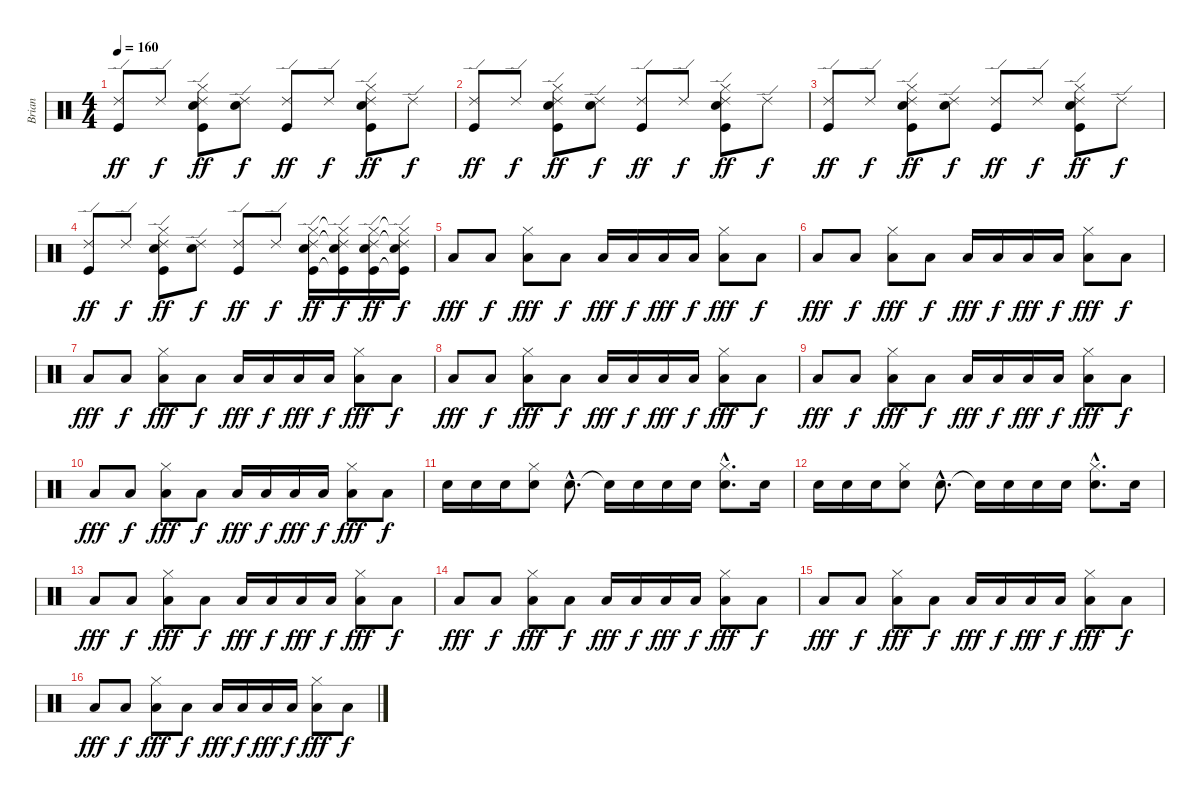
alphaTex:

\track ("Brian" "Brian") {instrument percussion}
\staff {score}
\articulation defaults
\ts (4 4)
\tempo 160
\clef neutral
\ks c
("Ride (edge) 2" "Kick (hit)").8{dy ff} "Ride (edge) 2".8{dy f} ("Ride (edge) 2" "Hi-Hat (closed)" "Snare (hit) 2" "Kick (hit)").8{dy ff} ("Ride (edge) 2" "Snare (hit) 2").8{dy f} ("Ride (edge) 2" "Kick (hit)").8{dy ff} "Ride (edge) 2".8{dy f} ("Ride (edge) 2" "Hi-Hat (closed)" "Snare (hit) 2" "Kick (hit)").8{dy ff} "Ride (edge) 2".8{dy f} |
("Ride (edge) 2" "Kick (hit)").8{dy ff} "Ride (edge) 2".8{dy f} ("Ride (edge) 2" "Hi-Hat (closed)" "Snare (hit) 2" "Kick (hit)").8{dy ff} ("Ride (edge) 2" "Snare (hit) 2").8{dy f} ("Ride (edge) 2" "Kick (hit)").8{dy ff} "Ride (edge) 2".8{dy f} ("Ride (edge) 2" "Hi-Hat (closed)" "Snare (hit) 2" "Kick (hit)").8{dy ff} "Ride (edge) 2".8{dy f} |
("Ride (edge) 2" "Kick (hit)").8{dy ff} "Ride (edge) 2".8{dy f} ("Ride (edge) 2" "Hi-Hat (closed)" "Snare (hit) 2" "Kick (hit)").8{dy ff} ("Ride (edge) 2" "Snare (hit) 2").8{dy f} ("Ride (edge) 2" "Kick (hit)").8{dy ff} "Ride (edge) 2".8{dy f} ("Ride (edge) 2" "Hi-Hat (closed)" "Snare (hit) 2" "Kick (hit)").8{dy ff} "Ride (edge) 2".8{dy f} |
("Ride (edge) 2" "Kick (hit)").8{dy ff} "Ride (edge) 2".8{dy f} ("Ride (edge) 2" "Hi-Hat (closed)" "Snare (hit) 2" "Kick (hit)").8{dy ff} ("Ride (edge) 2" "Snare (hit) 2").8{dy f} ("Ride (edge) 2" "Kick (hit)").8{dy ff} "Ride (edge) 2".8{dy f} ("Ride (edge) 2" "Hi-Hat (closed)" "Snare (hit) 2" "Kick (hit)").16{dy ff} ("Ride (edge) 2"{t} "Hi-Hat (closed)"{t} "Snare (hit) 2" "Kick (hit)"{t}).16{dy f} ("Ride (edge) 2" "Hi-Hat (closed)" "Snare (hit) 2" "Kick (hit)").16{dy ff} ("Ride (edge) 2"{t} "Hi-Hat (closed)"{t} "Snare (hit) 2" "Kick (hit)"{t}).16{dy f} |
"Low Tom (hit)".8{dy fff} "Low Tom (hit)".8{dy f} ("Hi-Hat (closed)" "Low Tom (hit)").8{dy fff} "Low Tom (hit)".8{dy f} "Low Tom (hit)".16{dy fff} "Low Tom (hit)".16{dy f} "Low Tom (hit)".16{dy fff} "Low Tom (hit)".16{dy f} ("Hi-Hat (closed)" "Low Tom (hit)").8{dy fff} "Low Tom (hit)".8{dy f} |
"Low Tom (hit)".8{dy fff} "Low Tom (hit)".8{dy f} ("Hi-Hat (closed)" "Low Tom (hit)").8{dy fff} "Low Tom (hit)".8{dy f} "Low Tom (hit)".16{dy fff} "Low Tom (hit)".16{dy f} "Low Tom (hit)".16{dy fff} "Low Tom (hit)".16{dy f} ("Hi-Hat (closed)" "Low Tom (hit)").8{dy fff} "Low Tom (hit)".8{dy f} |
"Low Tom (hit)".8{dy fff} "Low Tom (hit)".8{dy f} ("Hi-Hat (closed)" "Low Tom (hit)").8{dy fff} "Low Tom (hit)".8{dy f} "Low Tom (hit)".16{dy fff} "Low Tom (hit)".16{dy f} "Low Tom (hit)".16{dy fff} "Low Tom (hit)".16{dy f} ("Hi-Hat (closed)" "Low Tom (hit)").8{dy fff} "Low Tom (hit)".8{dy f} |
"Low Tom (hit)".8{dy fff} "Low Tom (hit)".8{dy f} ("Hi-Hat (closed)" "Low Tom (hit)").8{dy fff} "Low Tom (hit)".8{dy f} "Low Tom (hit)".16{dy fff} "Low Tom (hit)".16{dy f} "Low Tom (hit)".16{dy fff} "Low Tom (hit)".16{dy f} ("Hi-Hat (closed)" "Low Tom (hit)").8{dy fff} "Low Tom (hit)".8{dy f} |
"Low Tom (hit)".8{dy fff} "Low Tom (hit)".8{dy f} ("Hi-Hat (closed)" "Low Tom (hit)").8{dy fff} "Low Tom (hit)".8{dy f} "Low Tom (hit)".16{dy fff} "Low Tom (hit)".16{dy f} "Low Tom (hit)".16{dy fff} "Low Tom (hit)".16{dy f} ("Hi-Hat (closed)" "Low Tom (hit)").8{dy fff} "Low Tom (hit)".8{dy f} |
"Low Tom (hit)".8{dy fff} "Low Tom (hit)".8{dy f} ("Hi-Hat (closed)" "Low Tom (hit)").8{dy fff} "Low Tom (hit)".8{dy f} "Low Tom (hit)".16{dy fff} "Low Tom (hit)".16{dy f} "Low Tom (hit)".16{dy fff} "Low Tom (hit)".16{dy f} ("Hi-Hat (closed)" "Low Tom (hit)").8{dy fff} "Low Tom (hit)".8{dy f} |
"Snare (hit) 2".16 "Snare (hit) 2".16 "Snare (hit) 2".16 ("Hi-Hat (closed)" "Snare (hit) 2").8 "Snare (hit) 2"{hac}.8{d} "Snare (hit)"{t}.16 "Snare (hit) 2".16 "Snare (hit) 2".16 "Snare (hit) 2".16 ("Hi-Hat (closed)"{hac} "Snare (hit) 2"{hac}).8{d} "Snare (hit) 2".16 |
"Snare (hit) 2".16 "Snare (hit) 2".16 "Snare (hit) 2".16 ("Hi-Hat (closed)" "Snare (hit) 2").8 "Snare (hit) 2"{hac}.8{d} "Snare (hit)"{t}.16 "Snare (hit) 2".16 "Snare (hit) 2".16 "Snare (hit) 2".16 ("Hi-Hat (closed)"{hac} "Snare (hit) 2"{hac}).8{d} "Snare (hit) 2".16 |
"Low Tom (hit)".8{dy fff} "Low Tom (hit)".8{dy f} ("Hi-Hat (closed)" "Low Tom (hit)").8{dy fff} "Low Tom (hit)".8{dy f} "Low Tom (hit)".16{dy fff} "Low Tom (hit)".16{dy f} "Low Tom (hit)".16{dy fff} "Low Tom (hit)".16{dy f} ("Hi-Hat (closed)" "Low Tom (hit)").8{dy fff} "Low Tom (hit)".8{dy f} |
"Low Tom (hit)".8{dy fff} "Low Tom (hit)".8{dy f} ("Hi-Hat (closed)" "Low Tom (hit)").8{dy fff} "Low Tom (hit)".8{dy f} "Low Tom (hit)".16{dy fff} "Low Tom (hit)".16{dy f} "Low Tom (hit)".16{dy fff} "Low Tom (hit)".16{dy f} ("Hi-Hat (closed)" "Low Tom (hit)").8{dy fff} "Low Tom (hit)".8{dy f} |
"Low Tom (hit)".8{dy fff} "Low Tom (hit)".8{dy f} ("Hi-Hat (closed)" "Low Tom (hit)").8{dy fff} "Low Tom (hit)".8{dy f} "Low Tom (hit)".16{dy fff} "Low Tom (hit)".16{dy f} "Low Tom (hit)".16{dy fff} "Low Tom (hit)".16{dy f} ("Hi-Hat (closed)" "Low Tom (hit)").8{dy fff} "Low Tom (hit)".8{dy f} |
"Low Tom (hit)".8{dy fff} "Low Tom (hit)".8{dy f} ("Hi-Hat (closed)" "Low Tom (hit)").8{dy fff} "Low Tom (hit)".8{dy f} "Low Tom (hit)".16{dy fff} "Low Tom (hit)".16{dy f} "Low Tom (hit)".16{dy fff} "Low Tom (hit)".16{dy f} ("Hi-Hat (closed)" "Low Tom (hit)").8{dy fff} "Low Tom (hit)".8{dy f}
